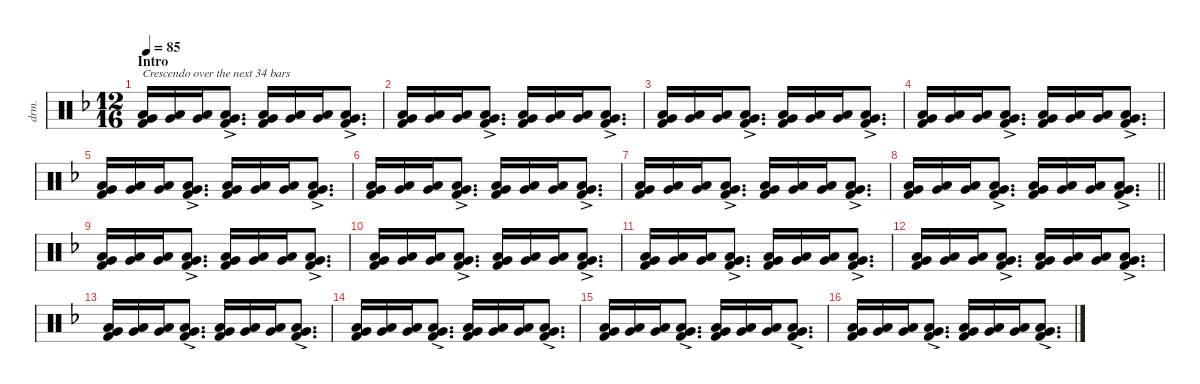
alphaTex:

\defaultSystemsLayout 4
\hideDynamics
\bracketExtendMode nobrackets
\otherSystemsTrackNameOrientation horizontal
\track ("Drums" "drm.") {instrument percussion}
\staff {score}
\articulation defaults
\ts (12 16)
\beaming (8 3 3)
\section ("" "Intro")
\tempo 85
\clef neutral
\ks dminor
("Low Tom (hit)"{acc forcenatural} "Very Low Tom (hit)"{acc forcenatural} "Kick (hit) 2"{acc forcenatural}).16{txt "Crescendo over the next 34 bars" dy f beam Up} ("Low Tom (hit)"{acc forcenatural} "Very Low Tom (hit)"{acc forcenatural}).16{beam Up} ("Low Tom (hit)"{acc forcenatural} "Very Low Tom (hit)"{acc forcenatural}).16{beam Up} ("Low Tom (hit)"{ac acc forcenatural} "Very Low Tom (hit)"{ac acc forcenatural} "Kick (hit) 2"{acc forcenatural}).8{d beam Up} ("Low Tom (hit)"{acc forcenatural} "Very Low Tom (hit)"{acc forcenatural} "Kick (hit) 2"{acc forcenatural}).16{beam Up} ("Low Tom (hit)"{acc forcenatural} "Very Low Tom (hit)"{acc forcenatural}).16{beam Up} ("Low Tom (hit)"{acc forcenatural} "Very Low Tom (hit)"{acc forcenatural}).16{beam Up} ("Low Tom (hit)"{ac acc forcenatural} "Very Low Tom (hit)"{ac acc forcenatural} "Kick (hit) 2"{acc forcenatural}).8{d beam Up} |
("Low Tom (hit)"{acc forcenatural} "Very Low Tom (hit)"{acc forcenatural} "Kick (hit) 2"{acc forcenatural}).16{beam Up} ("Low Tom (hit)"{acc forcenatural} "Very Low Tom (hit)"{acc forcenatural}).16{beam Up} ("Low Tom (hit)"{acc forcenatural} "Very Low Tom (hit)"{acc forcenatural}).16{beam Up} ("Low Tom (hit)"{ac acc forcenatural} "Very Low Tom (hit)"{ac acc forcenatural} "Kick (hit) 2"{acc forcenatural}).8{d beam Up} ("Low Tom (hit)"{acc forcenatural} "Very Low Tom (hit)"{acc forcenatural} "Kick (hit) 2"{acc forcenatural}).16{beam Up} ("Low Tom (hit)"{acc forcenatural} "Very Low Tom (hit)"{acc forcenatural}).16{beam Up} ("Low Tom (hit)"{acc forcenatural} "Very Low Tom (hit)"{acc forcenatural}).16{beam Up} ("Low Tom (hit)"{ac acc forcenatural} "Very Low Tom (hit)"{ac acc forcenatural} "Kick (hit) 2"{acc forcenatural}).8{d beam Up} |
("Low Tom (hit)"{acc forcenatural} "Very Low Tom (hit)"{acc forcenatural} "Kick (hit) 2"{acc forcenatural}).16{beam Up} ("Low Tom (hit)"{acc forcenatural} "Very Low Tom (hit)"{acc forcenatural}).16{beam Up} ("Low Tom (hit)"{acc forcenatural} "Very Low Tom (hit)"{acc forcenatural}).16{beam Up} ("Low Tom (hit)"{ac acc forcenatural} "Very Low Tom (hit)"{ac acc forcenatural} "Kick (hit) 2"{acc forcenatural}).8{d beam Up} ("Low Tom (hit)"{acc forcenatural} "Very Low Tom (hit)"{acc forcenatural} "Kick (hit) 2"{acc forcenatural}).16{beam Up} ("Low Tom (hit)"{acc forcenatural} "Very Low Tom (hit)"{acc forcenatural}).16{beam Up} ("Low Tom (hit)"{acc forcenatural} "Very Low Tom (hit)"{acc forcenatural}).16{beam Up} ("Low Tom (hit)"{ac acc forcenatural} "Very Low Tom (hit)"{ac acc forcenatural} "Kick (hit) 2"{acc forcenatural}).8{d beam Up} |
("Low Tom (hit)"{acc forcenatural} "Very Low Tom (hit)"{acc forcenatural} "Kick (hit) 2"{acc forcenatural}).16{beam Up} ("Low Tom (hit)"{acc forcenatural} "Very Low Tom (hit)"{acc forcenatural}).16{beam Up} ("Low Tom (hit)"{acc forcenatural} "Very Low Tom (hit)"{acc forcenatural}).16{beam Up} ("Low Tom (hit)"{ac acc forcenatural} "Very Low Tom (hit)"{ac acc forcenatural} "Kick (hit) 2"{acc forcenatural}).8{d beam Up} ("Low Tom (hit)"{acc forcenatural} "Very Low Tom (hit)"{acc forcenatural} "Kick (hit) 2"{acc forcenatural}).16{beam Up} ("Low Tom (hit)"{acc forcenatural} "Very Low Tom (hit)"{acc forcenatural}).16{beam Up} ("Low Tom (hit)"{acc forcenatural} "Very Low Tom (hit)"{acc forcenatural}).16{beam Up} ("Low Tom (hit)"{ac acc forcenatural} "Very Low Tom (hit)"{ac acc forcenatural} "Kick (hit) 2"{acc forcenatural}).8{d beam Up} |
("Low Tom (hit)"{acc forcenatural} "Very Low Tom (hit)"{acc forcenatural} "Kick (hit) 2"{acc forcenatural}).16{beam Up} ("Low Tom (hit)"{acc forcenatural} "Very Low Tom (hit)"{acc forcenatural}).16{beam Up} ("Low Tom (hit)"{acc forcenatural} "Very Low Tom (hit)"{acc forcenatural}).16{beam Up} ("Low Tom (hit)"{ac acc forcenatural} "Very Low Tom (hit)"{ac acc forcenatural} "Kick (hit) 2"{acc forcenatural}).8{d beam Up} ("Low Tom (hit)"{acc forcenatural} "Very Low Tom (hit)"{acc forcenatural} "Kick (hit) 2"{acc forcenatural}).16{beam Up} ("Low Tom (hit)"{acc forcenatural} "Very Low Tom (hit)"{acc forcenatural}).16{beam Up} ("Low Tom (hit)"{acc forcenatural} "Very Low Tom (hit)"{acc forcenatural}).16{beam Up} ("Low Tom (hit)"{ac acc forcenatural} "Very Low Tom (hit)"{ac acc forcenatural} "Kick (hit) 2"{acc forcenatural}).8{d beam Up} |
("Low Tom (hit)"{acc forcenatural} "Very Low Tom (hit)"{acc forcenatural} "Kick (hit) 2"{acc forcenatural}).16{beam Up} ("Low Tom (hit)"{acc forcenatural} "Very Low Tom (hit)"{acc forcenatural}).16{beam Up} ("Low Tom (hit)"{acc forcenatural} "Very Low Tom (hit)"{acc forcenatural}).16{beam Up} ("Low Tom (hit)"{ac acc forcenatural} "Very Low Tom (hit)"{ac acc forcenatural} "Kick (hit) 2"{acc forcenatural}).8{d beam Up} ("Low Tom (hit)"{acc forcenatural} "Very Low Tom (hit)"{acc forcenatural} "Kick (hit) 2"{acc forcenatural}).16{beam Up} ("Low Tom (hit)"{acc forcenatural} "Very Low Tom (hit)"{acc forcenatural}).16{beam Up} ("Low Tom (hit)"{acc forcenatural} "Very Low Tom (hit)"{acc forcenatural}).16{beam Up} ("Low Tom (hit)"{ac acc forcenatural} "Very Low Tom (hit)"{ac acc forcenatural} "Kick (hit) 2"{acc forcenatural}).8{d beam Up} |
("Low Tom (hit)"{acc forcenatural} "Very Low Tom (hit)"{acc forcenatural} "Kick (hit) 2"{acc forcenatural}).16{beam Up} ("Low Tom (hit)"{acc forcenatural} "Very Low Tom (hit)"{acc forcenatural}).16{beam Up} ("Low Tom (hit)"{acc forcenatural} "Very Low Tom (hit)"{acc forcenatural}).16{beam Up} ("Low Tom (hit)"{ac acc forcenatural} "Very Low Tom (hit)"{ac acc forcenatural} "Kick (hit) 2"{acc forcenatural}).8{d beam Up} ("Low Tom (hit)"{acc forcenatural} "Very Low Tom (hit)"{acc forcenatural} "Kick (hit) 2"{acc forcenatural}).16{beam Up} ("Low Tom (hit)"{acc forcenatural} "Very Low Tom (hit)"{acc forcenatural}).16{beam Up} ("Low Tom (hit)"{acc forcenatural} "Very Low Tom (hit)"{acc forcenatural}).16{beam Up} ("Low Tom (hit)"{ac acc forcenatural} "Very Low Tom (hit)"{ac acc forcenatural} "Kick (hit) 2"{acc forcenatural}).8{d beam Up} |
\barLineRight lightlight
("Low Tom (hit)"{acc forcenatural} "Very Low Tom (hit)"{acc forcenatural} "Kick (hit) 2"{acc forcenatural}).16{beam Up} ("Low Tom (hit)"{acc forcenatural} "Very Low Tom (hit)"{acc forcenatural}).16{beam Up} ("Low Tom (hit)"{acc forcenatural} "Very Low Tom (hit)"{acc forcenatural}).16{beam Up} ("Low Tom (hit)"{ac acc forcenatural} "Very Low Tom (hit)"{ac acc forcenatural} "Kick (hit) 2"{acc forcenatural}).8{d beam Up} ("Low Tom (hit)"{acc forcenatural} "Very Low Tom (hit)"{acc forcenatural} "Kick (hit) 2"{acc forcenatural}).16{beam Up} ("Low Tom (hit)"{acc forcenatural} "Very Low Tom (hit)"{acc forcenatural}).16{beam Up} ("Low Tom (hit)"{acc forcenatural} "Very Low Tom (hit)"{acc forcenatural}).16{beam Up} ("Low Tom (hit)"{ac acc forcenatural} "Very Low Tom (hit)"{ac acc forcenatural} "Kick (hit) 2"{acc forcenatural}).8{d beam Up} |
("Low Tom (hit)"{acc forcenatural} "Very Low Tom (hit)"{acc forcenatural} "Kick (hit) 2"{acc forcenatural}).16{beam Up} ("Low Tom (hit)"{acc forcenatural} "Very Low Tom (hit)"{acc forcenatural}).16{beam Up} ("Low Tom (hit)"{acc forcenatural} "Very Low Tom (hit)"{acc forcenatural}).16{beam Up} ("Low Tom (hit)"{ac acc forcenatural} "Very Low Tom (hit)"{ac acc forcenatural} "Kick (hit) 2"{acc forcenatural}).8{d beam Up} ("Low Tom (hit)"{acc forcenatural} "Very Low Tom (hit)"{acc forcenatural} "Kick (hit) 2"{acc forcenatural}).16{beam Up} ("Low Tom (hit)"{acc forcenatural} "Very Low Tom (hit)"{acc forcenatural}).16{beam Up} ("Low Tom (hit)"{acc forcenatural} "Very Low Tom (hit)"{acc forcenatural}).16{beam Up} ("Low Tom (hit)"{ac acc forcenatural} "Very Low Tom (hit)"{ac acc forcenatural} "Kick (hit) 2"{acc forcenatural}).8{d beam Up} |
("Low Tom (hit)"{acc forcenatural} "Very Low Tom (hit)"{acc forcenatural} "Kick (hit) 2"{acc forcenatural}).16{beam Up} ("Low Tom (hit)"{acc forcenatural} "Very Low Tom (hit)"{acc forcenatural}).16{beam Up} ("Low Tom (hit)"{acc forcenatural} "Very Low Tom (hit)"{acc forcenatural}).16{beam Up} ("Low Tom (hit)"{ac acc forcenatural} "Very Low Tom (hit)"{ac acc forcenatural} "Kick (hit) 2"{acc forcenatural}).8{d beam Up} ("Low Tom (hit)"{acc forcenatural} "Very Low Tom (hit)"{acc forcenatural} "Kick (hit) 2"{acc forcenatural}).16{beam Up} ("Low Tom (hit)"{acc forcenatural} "Very Low Tom (hit)"{acc forcenatural}).16{beam Up} ("Low Tom (hit)"{acc forcenatural} "Very Low Tom (hit)"{acc forcenatural}).16{beam Up} ("Low Tom (hit)"{ac acc forcenatural} "Very Low Tom (hit)"{ac acc forcenatural} "Kick (hit) 2"{acc forcenatural}).8{d beam Up} |
("Low Tom (hit)"{acc forcenatural} "Very Low Tom (hit)"{acc forcenatural} "Kick (hit) 2"{acc forcenatural}).16{beam Up} ("Low Tom (hit)"{acc forcenatural} "Very Low Tom (hit)"{acc forcenatural}).16{beam Up} ("Low Tom (hit)"{acc forcenatural} "Very Low Tom (hit)"{acc forcenatural}).16{beam Up} ("Low Tom (hit)"{ac acc forcenatural} "Very Low Tom (hit)"{ac acc forcenatural} "Kick (hit) 2"{acc forcenatural}).8{d beam Up} ("Low Tom (hit)"{acc forcenatural} "Very Low Tom (hit)"{acc forcenatural} "Kick (hit) 2"{acc forcenatural}).16{beam Up} ("Low Tom (hit)"{acc forcenatural} "Very Low Tom (hit)"{acc forcenatural}).16{beam Up} ("Low Tom (hit)"{acc forcenatural} "Very Low Tom (hit)"{acc forcenatural}).16{beam Up} ("Low Tom (hit)"{ac acc forcenatural} "Very Low Tom (hit)"{ac acc forcenatural} "Kick (hit) 2"{acc forcenatural}).8{d beam Up} |
("Low Tom (hit)"{acc forcenatural} "Very Low Tom (hit)"{acc forcenatural} "Kick (hit) 2"{acc forcenatural}).16{beam Up} ("Low Tom (hit)"{acc forcenatural} "Very Low Tom (hit)"{acc forcenatural}).16{beam Up} ("Low Tom (hit)"{acc forcenatural} "Very Low Tom (hit)"{acc forcenatural}).16{beam Up} ("Low Tom (hit)"{ac acc forcenatural} "Very Low Tom (hit)"{ac acc forcenatural} "Kick (hit) 2"{acc forcenatural}).8{d beam Up} ("Low Tom (hit)"{acc forcenatural} "Very Low Tom (hit)"{acc forcenatural} "Kick (hit) 2"{acc forcenatural}).16{beam Up} ("Low Tom (hit)"{acc forcenatural} "Very Low Tom (hit)"{acc forcenatural}).16{beam Up} ("Low Tom (hit)"{acc forcenatural} "Very Low Tom (hit)"{acc forcenatural}).16{beam Up} ("Low Tom (hit)"{ac acc forcenatural} "Very Low Tom (hit)"{ac acc forcenatural} "Kick (hit) 2"{acc forcenatural}).8{d beam Up} |
("Low Tom (hit)"{acc forcenatural} "Very Low Tom (hit)"{acc forcenatural} "Kick (hit) 2"{acc forcenatural}).16{beam Up} ("Low Tom (hit)"{acc forcenatural} "Very Low Tom (hit)"{acc forcenatural}).16{beam Up} ("Low Tom (hit)"{acc forcenatural} "Very Low Tom (hit)"{acc forcenatural}).16{beam Up} ("Low Tom (hit)"{ac acc forcenatural} "Very Low Tom (hit)"{ac acc forcenatural} "Kick (hit) 2"{acc forcenatural}).8{d beam Up} ("Low Tom (hit)"{acc forcenatural} "Very Low Tom (hit)"{acc forcenatural} "Kick (hit) 2"{acc forcenatural}).16{beam Up} ("Low Tom (hit)"{acc forcenatural} "Very Low Tom (hit)"{acc forcenatural}).16{beam Up} ("Low Tom (hit)"{acc forcenatural} "Very Low Tom (hit)"{acc forcenatural}).16{beam Up} ("Low Tom (hit)"{ac acc forcenatural} "Very Low Tom (hit)"{ac acc forcenatural} "Kick (hit) 2"{acc forcenatural}).8{d beam Up} |
("Low Tom (hit)"{acc forcenatural} "Very Low Tom (hit)"{acc forcenatural} "Kick (hit) 2"{acc forcenatural}).16{beam Up} ("Low Tom (hit)"{acc forcenatural} "Very Low Tom (hit)"{acc forcenatural}).16{beam Up} ("Low Tom (hit)"{acc forcenatural} "Very Low Tom (hit)"{acc forcenatural}).16{beam Up} ("Low Tom (hit)"{ac acc forcenatural} "Very Low Tom (hit)"{ac acc forcenatural} "Kick (hit) 2"{acc forcenatural}).8{d beam Up} ("Low Tom (hit)"{acc forcenatural} "Very Low Tom (hit)"{acc forcenatural} "Kick (hit) 2"{acc forcenatural}).16{beam Up} ("Low Tom (hit)"{acc forcenatural} "Very Low Tom (hit)"{acc forcenatural}).16{beam Up} ("Low Tom (hit)"{acc forcenatural} "Very Low Tom (hit)"{acc forcenatural}).16{beam Up} ("Low Tom (hit)"{ac acc forcenatural} "Very Low Tom (hit)"{ac acc forcenatural} "Kick (hit) 2"{acc forcenatural}).8{d beam Up} |
("Low Tom (hit)"{acc forcenatural} "Very Low Tom (hit)"{acc forcenatural} "Kick (hit) 2"{acc forcenatural}).16{beam Up} ("Low Tom (hit)"{acc forcenatural} "Very Low Tom (hit)"{acc forcenatural}).16{beam Up} ("Low Tom (hit)"{acc forcenatural} "Very Low Tom (hit)"{acc forcenatural}).16{beam Up} ("Low Tom (hit)"{ac acc forcenatural} "Very Low Tom (hit)"{ac acc forcenatural} "Kick (hit) 2"{acc forcenatural}).8{d beam Up} ("Low Tom (hit)"{acc forcenatural} "Very Low Tom (hit)"{acc forcenatural} "Kick (hit) 2"{acc forcenatural}).16{beam Up} ("Low Tom (hit)"{acc forcenatural} "Very Low Tom (hit)"{acc forcenatural}).16{beam Up} ("Low Tom (hit)"{acc forcenatural} "Very Low Tom (hit)"{acc forcenatural}).16{beam Up} ("Low Tom (hit)"{ac acc forcenatural} "Very Low Tom (hit)"{ac acc forcenatural} "Kick (hit) 2"{acc forcenatural}).8{d beam Up} |
("Low Tom (hit)"{acc forcenatural} "Very Low Tom (hit)"{acc forcenatural} "Kick (hit) 2"{acc forcenatural}).16{beam Up} ("Low Tom (hit)"{acc forcenatural} "Very Low Tom (hit)"{acc forcenatural}).16{beam Up} ("Low Tom (hit)"{acc forcenatural} "Very Low Tom (hit)"{acc forcenatural}).16{beam Up} ("Low Tom (hit)"{ac acc forcenatural} "Very Low Tom (hit)"{ac acc forcenatural} "Kick (hit) 2"{acc forcenatural}).8{d beam Up} ("Low Tom (hit)"{acc forcenatural} "Very Low Tom (hit)"{acc forcenatural} "Kick (hit) 2"{acc forcenatural}).16{beam Up} ("Low Tom (hit)"{acc forcenatural} "Very Low Tom (hit)"{acc forcenatural}).16{beam Up} ("Low Tom (hit)"{acc forcenatural} "Very Low Tom (hit)"{acc forcenatural}).16{beam Up} ("Low Tom (hit)"{ac acc forcenatural} "Very Low Tom (hit)"{ac acc forcenatural} "Kick (hit) 2"{acc forcenatural}).8{d beam Up}
